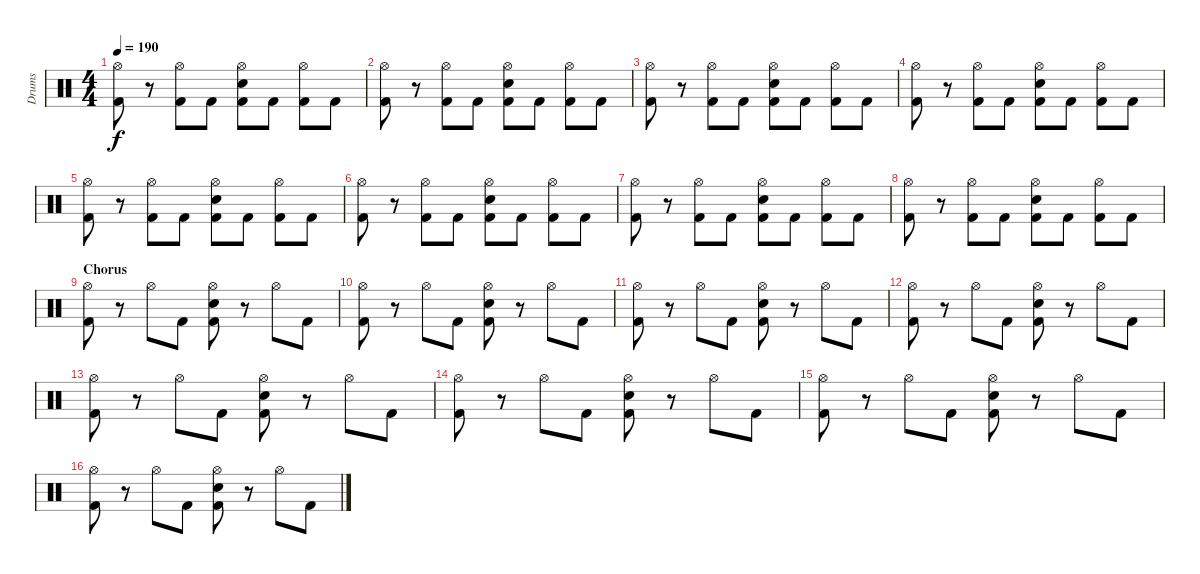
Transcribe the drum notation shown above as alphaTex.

\track ("Drums" "Drums") {instrument percussion}
\staff {score}
\articulation defaults
\ts (4 4)
\tempo 190
\clef neutral
\ks c
("Hi-Hat (open)" "Kick (hit) 2").8{dy f} r.8 ("Hi-Hat (open)" "Kick (hit) 2").8 "Kick (hit) 2".8 ("Hi-Hat (open)" "Snare (hit) 2" "Kick (hit) 2").8 "Kick (hit) 2".8 ("Hi-Hat (open)" "Kick (hit) 2").8 "Kick (hit) 2".8 |
("Hi-Hat (open)" "Kick (hit) 2").8 r.8 ("Hi-Hat (open)" "Kick (hit) 2").8 "Kick (hit) 2".8 ("Hi-Hat (open)" "Snare (hit) 2" "Kick (hit) 2").8 "Kick (hit) 2".8 ("Hi-Hat (open)" "Kick (hit) 2").8 "Kick (hit) 2".8 |
("Hi-Hat (open)" "Kick (hit) 2").8 r.8 ("Hi-Hat (open)" "Kick (hit) 2").8 "Kick (hit) 2".8 ("Hi-Hat (open)" "Snare (hit) 2" "Kick (hit) 2").8 "Kick (hit) 2".8 ("Hi-Hat (open)" "Kick (hit) 2").8 "Kick (hit) 2".8 |
("Hi-Hat (open)" "Kick (hit) 2").8 r.8 ("Hi-Hat (open)" "Kick (hit) 2").8 "Kick (hit) 2".8 ("Hi-Hat (open)" "Snare (hit) 2" "Kick (hit) 2").8 "Kick (hit) 2".8 ("Hi-Hat (open)" "Kick (hit) 2").8 "Kick (hit) 2".8 |
("Hi-Hat (open)" "Kick (hit) 2").8 r.8 ("Hi-Hat (open)" "Kick (hit) 2").8 "Kick (hit) 2".8 ("Hi-Hat (open)" "Snare (hit) 2" "Kick (hit) 2").8 "Kick (hit) 2".8 ("Hi-Hat (open)" "Kick (hit) 2").8 "Kick (hit) 2".8 |
("Hi-Hat (open)" "Kick (hit) 2").8 r.8 ("Hi-Hat (open)" "Kick (hit) 2").8 "Kick (hit) 2".8 ("Hi-Hat (open)" "Snare (hit) 2" "Kick (hit) 2").8 "Kick (hit) 2".8 ("Hi-Hat (open)" "Kick (hit) 2").8 "Kick (hit) 2".8 |
("Hi-Hat (open)" "Kick (hit) 2").8 r.8 ("Hi-Hat (open)" "Kick (hit) 2").8 "Kick (hit) 2".8 ("Hi-Hat (open)" "Snare (hit) 2" "Kick (hit) 2").8 "Kick (hit) 2".8 ("Hi-Hat (open)" "Kick (hit) 2").8 "Kick (hit) 2".8 |
("Hi-Hat (open)" "Kick (hit) 2").8 r.8 ("Hi-Hat (open)" "Kick (hit) 2").8 "Kick (hit) 2".8 ("Hi-Hat (open)" "Snare (hit) 2" "Kick (hit) 2").8 "Kick (hit) 2".8 ("Hi-Hat (open)" "Kick (hit) 2").8 "Kick (hit) 2".8 |
\section ("" "Chorus")
("Hi-Hat (open)" "Kick (hit) 2").8 r.8 "Hi-Hat (open)".8 "Kick (hit) 2".8 ("Hi-Hat (open)" "Snare (hit) 2" "Kick (hit) 2").8 r.8 "Hi-Hat (open)".8 "Kick (hit) 2".8 |
("Hi-Hat (open)" "Kick (hit) 2").8 r.8 "Hi-Hat (open)".8 "Kick (hit) 2".8 ("Hi-Hat (open)" "Snare (hit) 2" "Kick (hit) 2").8 r.8 "Hi-Hat (open)".8 "Kick (hit) 2".8 |
("Hi-Hat (open)" "Kick (hit) 2").8 r.8 "Hi-Hat (open)".8 "Kick (hit) 2".8 ("Hi-Hat (open)" "Snare (hit) 2" "Kick (hit) 2").8 r.8 "Hi-Hat (open)".8 "Kick (hit) 2".8 |
("Hi-Hat (open)" "Kick (hit) 2").8 r.8 "Hi-Hat (open)".8 "Kick (hit) 2".8 ("Hi-Hat (open)" "Snare (hit) 2" "Kick (hit) 2").8 r.8 "Hi-Hat (open)".8 "Kick (hit) 2".8 |
("Hi-Hat (open)" "Kick (hit) 2").8 r.8 "Hi-Hat (open)".8 "Kick (hit) 2".8 ("Hi-Hat (open)" "Snare (hit) 2" "Kick (hit) 2").8 r.8 "Hi-Hat (open)".8 "Kick (hit) 2".8 |
("Hi-Hat (open)" "Kick (hit) 2").8 r.8 "Hi-Hat (open)".8 "Kick (hit) 2".8 ("Hi-Hat (open)" "Snare (hit) 2" "Kick (hit) 2").8 r.8 "Hi-Hat (open)".8 "Kick (hit) 2".8 |
("Hi-Hat (open)" "Kick (hit) 2").8 r.8 "Hi-Hat (open)".8 "Kick (hit) 2".8 ("Hi-Hat (open)" "Snare (hit) 2" "Kick (hit) 2").8 r.8 "Hi-Hat (open)".8 "Kick (hit) 2".8 |
("Hi-Hat (open)" "Kick (hit) 2").8 r.8 "Hi-Hat (open)".8 "Kick (hit) 2".8 ("Hi-Hat (open)" "Snare (hit) 2" "Kick (hit) 2").8 r.8 "Hi-Hat (open)".8 "Kick (hit) 2".8
